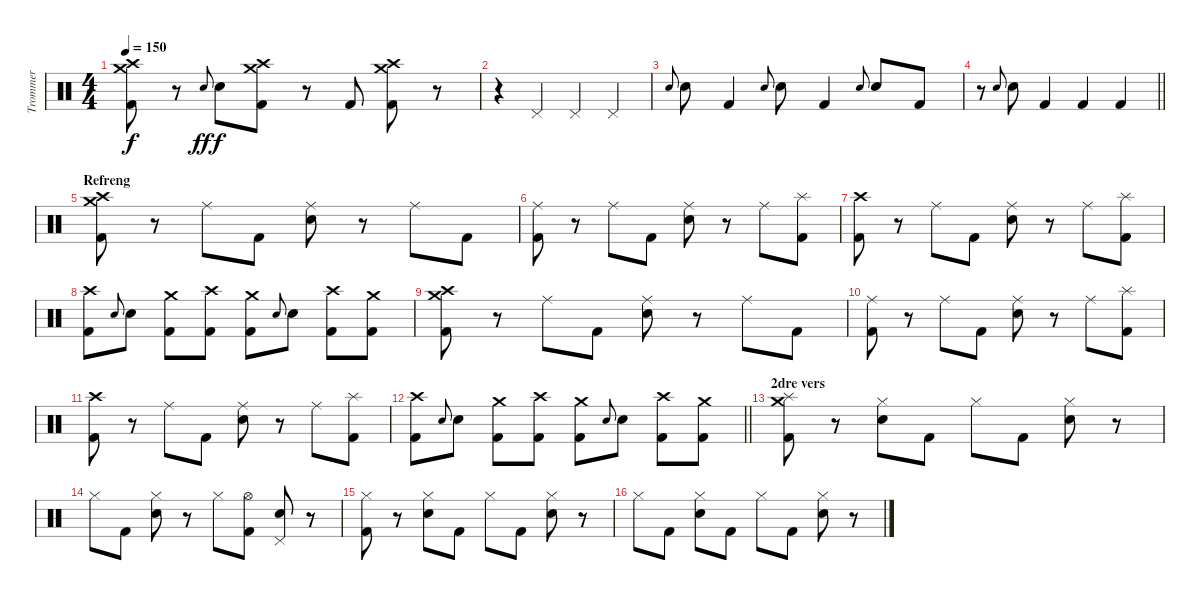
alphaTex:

\track ("Trommer" "Trommer") {instrument percussion}
\staff {score}
\articulation defaults
\ts (4 4)
\tempo 150
\clef neutral
\ks c
("Crash medium (hit)" "Crash high (hit)" "Kick (hit) 2").8{dy f} r.8 "Electric Snare (hit)".8{gr onbeat dy ff} "Electric Snare (hit)".8{dy f} ("Crash medium (hit)" "Crash high (hit)" "Kick (hit) 2").8 r.8 "Kick (hit) 2".8 ("Crash medium (hit)" "Crash high (hit)" "Kick (hit) 2").8 r.8 |
r.4 "Pedal Hi-Hat (hit)".4 "Pedal Hi-Hat (hit)".4 "Pedal Hi-Hat (hit)".4 |
"Electric Snare (hit)".8{gr onbeat} "Electric Snare (hit)".8 "Kick (hit) 2".4 "Electric Snare (hit)".8{gr onbeat} "Electric Snare (hit)".8 "Kick (hit) 2".4 "Electric Snare (hit)".8{gr onbeat} "Electric Snare (hit)".8 "Kick (hit) 2".8 |
\barLineRight lightlight
r.8 "Electric Snare (hit)".8{gr onbeat} "Electric Snare (hit)".8 "Kick (hit) 2".4 "Kick (hit) 2".4 "Kick (hit) 2".4 |
\section ("" "Refreng")
("Crash high (hit)" "Crash medium (hit)" "Kick (hit) 2").8 r.8 "Ride (middle)".8 "Kick (hit) 2".8 ("Ride (middle)" "Electric Snare (hit)").8 r.8 "Ride (middle)".8 "Kick (hit) 2".8 |
("Ride (middle)" "Kick (hit) 2").8 r.8 "Ride (middle)".8 "Kick (hit) 2".8 ("Ride (middle)" "Electric Snare (hit)").8 r.8 "Ride (middle)".8 ("Splash (hit)" "Kick (hit) 2").8 |
("Crash high (hit)" "Kick (hit) 2").8 r.8 "Ride (middle)".8 "Kick (hit) 2".8 ("Ride (middle)" "Electric Snare (hit)").8 r.8 "Ride (middle)".8 ("Splash (hit)" "Kick (hit) 2").8 |
("Crash high (hit)" "Kick (hit) 2").8 "Electric Snare (hit)".8{gr onbeat} "Electric Snare (hit)".8 ("Crash medium (hit)" "Kick (hit) 2").8 ("Crash high (hit)" "Kick (hit) 2").8 ("Crash medium (hit)" "Kick (hit) 2").8 "Electric Snare (hit)".8{gr onbeat} "Electric Snare (hit)".8 ("Crash high (hit)" "Kick (hit) 2").8 ("Crash medium (hit)" "Kick (hit) 2").8 |
("Crash high (hit)" "Crash medium (hit)" "Kick (hit) 2").8 r.8 "Ride (middle)".8 "Kick (hit) 2".8 ("Ride (middle)" "Electric Snare (hit)").8 r.8 "Ride (middle)".8 "Kick (hit) 2".8 |
("Ride (middle)" "Kick (hit) 2").8 r.8 "Ride (middle)".8 "Kick (hit) 2".8 ("Ride (middle)" "Electric Snare (hit)").8 r.8 "Ride (middle)".8 ("Splash (hit)" "Kick (hit) 2").8 |
("Crash high (hit)" "Kick (hit) 2").8 r.8 "Ride (middle)".8 "Kick (hit) 2".8 ("Ride (middle)" "Electric Snare (hit)").8 r.8 "Ride (middle)".8 ("Splash (hit)" "Kick (hit) 2").8 |
\barLineRight lightlight
("Crash high (hit)" "Kick (hit) 2").8 "Electric Snare (hit)".8{gr onbeat} "Electric Snare (hit)".8 ("Crash medium (hit)" "Kick (hit) 2").8 ("Crash high (hit)" "Kick (hit) 2").8 ("Crash medium (hit)" "Kick (hit) 2").8 "Electric Snare (hit)".8{gr onbeat} "Electric Snare (hit)".8 ("Crash high (hit)" "Kick (hit) 2").8 ("Crash medium (hit)" "Kick (hit) 2").8 |
\section ("" "2dre vers")
("Crash medium (hit)" "Splash (hit)" "Kick (hit) 2").8 r.8 ("Hi-Hat (closed)" "Electric Snare (hit)").8 "Kick (hit) 2".8 "Hi-Hat (closed)".8 "Kick (hit) 2".8 ("Hi-Hat (closed)" "Electric Snare (hit)").8 r.8 |
"Hi-Hat (closed)".8 "Kick (hit) 2".8 ("Hi-Hat (closed)" "Electric Snare (hit)").8 r.8 "Hi-Hat (closed)".8 ("Hi-Hat (open)" "Kick (hit) 2").8 ("Pedal Hi-Hat (hit)" "Electric Snare (hit)").8 r.8 |
("Hi-Hat (closed)" "Kick (hit) 2").8 r.8 ("Hi-Hat (closed)" "Electric Snare (hit)").8 "Kick (hit) 2".8 "Hi-Hat (closed)".8 "Kick (hit) 2".8 ("Hi-Hat (closed)" "Electric Snare (hit)").8 r.8 |
"Hi-Hat (closed)".8 "Kick (hit) 2".8 ("Hi-Hat (closed)" "Electric Snare (hit)").8 "Kick (hit) 2".8 "Hi-Hat (closed)".8 "Kick (hit) 2".8 ("Hi-Hat (closed)" "Electric Snare (hit)").8 r.8
